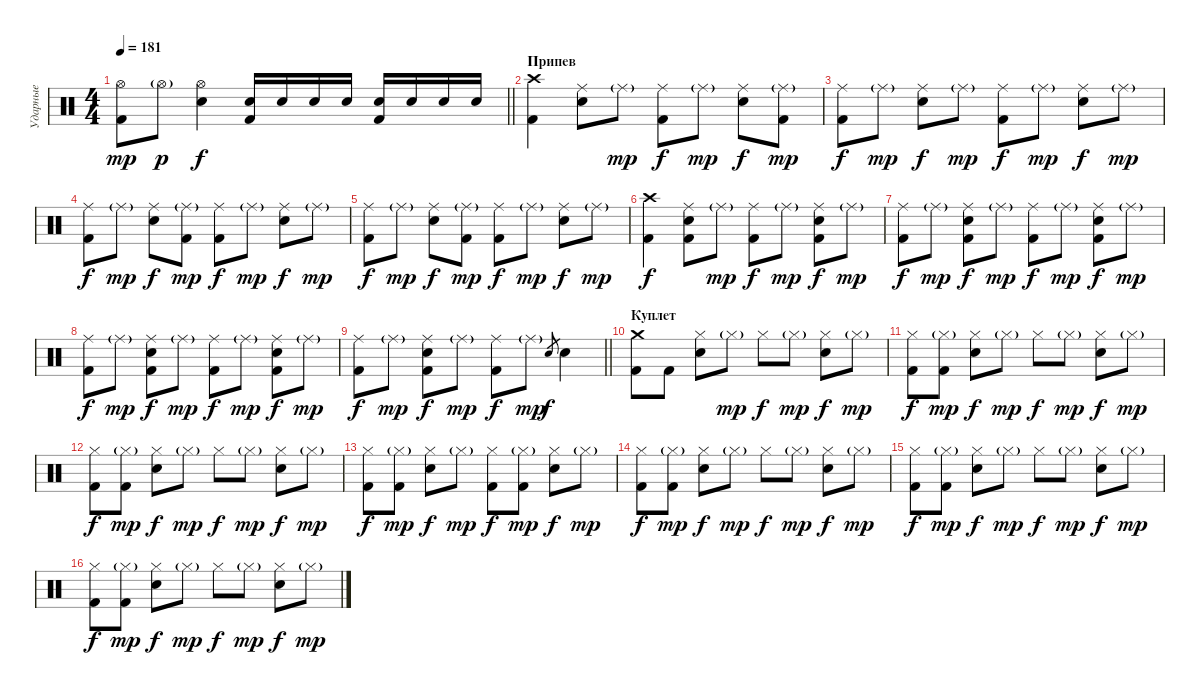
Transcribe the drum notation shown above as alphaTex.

\track ("Ударные" "Ударные") {instrument percussion}
\staff {score}
\articulation defaults
\ts (4 4)
\tempo 181
\clef neutral
\barLineRight lightlight
\ks c
("Hi-Hat (open)" "Kick (hit) 2").8{dy mp} "Hi-Hat (open)"{g}.8{dy p} ("Hi-Hat (open)" "Electric Snare (hit)").4{dy f} ("Electric Snare (hit)" "Kick (hit) 2").16 "Electric Snare (hit)".16 "Electric Snare (hit)".16 "Electric Snare (hit)".16 ("Electric Snare (hit)" "Kick (hit) 2").16 "Electric Snare (hit)".16 "Electric Snare (hit)".16 "Electric Snare (hit)".16 |
\section ("" "Припев")
("Crash high (hit)" "Kick (hit) 2").4 ("Ride (middle)" "Electric Snare (hit)").8 "Ride (middle)"{g}.8{dy mp} ("Ride (middle)" "Kick (hit) 2").8{dy f} "Ride (middle)"{g}.8{dy mp} ("Ride (middle)" "Electric Snare (hit)").8{dy f} ("Ride (middle)"{g} "Kick (hit) 2").8{dy mp} |
("Ride (middle)" "Kick (hit) 2").8{dy f} "Ride (middle)"{g}.8{dy mp} ("Ride (middle)" "Electric Snare (hit)").8{dy f} "Ride (middle)"{g}.8{dy mp} ("Ride (middle)" "Kick (hit) 2").8{dy f} "Ride (middle)"{g}.8{dy mp} ("Ride (middle)" "Electric Snare (hit)").8{dy f} "Ride (middle)"{g}.8{dy mp} |
("Ride (middle)" "Kick (hit) 2").8{dy f} "Ride (middle)"{g}.8{dy mp} ("Ride (middle)" "Electric Snare (hit)").8{dy f} ("Ride (middle)"{g} "Kick (hit) 2").8{dy mp} ("Ride (middle)" "Kick (hit) 2").8{dy f} "Ride (middle)"{g}.8{dy mp} ("Ride (middle)" "Electric Snare (hit)").8{dy f} "Ride (middle)"{g}.8{dy mp} |
("Ride (middle)" "Kick (hit) 2").8{dy f} "Ride (middle)"{g}.8{dy mp} ("Ride (middle)" "Electric Snare (hit)").8{dy f} ("Ride (middle)"{g} "Kick (hit) 2").8{dy mp} ("Ride (middle)" "Kick (hit) 2").8{dy f} "Ride (middle)"{g}.8{dy mp} ("Ride (middle)" "Electric Snare (hit)").8{dy f} "Ride (middle)"{g}.8{dy mp} |
("Crash high (hit)" "Kick (hit) 2").4{dy f} ("Ride (middle)" "Electric Snare (hit)" "Kick (hit) 2").8 "Ride (middle)"{g}.8{dy mp} ("Ride (middle)" "Kick (hit) 2").8{dy f} "Ride (middle)"{g}.8{dy mp} ("Ride (middle)" "Electric Snare (hit)" "Kick (hit) 2").8{dy f} "Ride (middle)"{g}.8{dy mp} |
("Ride (middle)" "Kick (hit) 2").8{dy f} "Ride (middle)"{g}.8{dy mp} ("Ride (middle)" "Electric Snare (hit)" "Kick (hit) 2").8{dy f} "Ride (middle)"{g}.8{dy mp} ("Ride (middle)" "Kick (hit) 2").8{dy f} "Ride (middle)"{g}.8{dy mp} ("Ride (middle)" "Electric Snare (hit)" "Kick (hit) 2").8{dy f} "Ride (middle)"{g}.8{dy mp} |
("Ride (middle)" "Kick (hit) 2").8{dy f} "Ride (middle)"{g}.8{dy mp} ("Ride (middle)" "Electric Snare (hit)" "Kick (hit) 2").8{dy f} "Ride (middle)"{g}.8{dy mp} ("Ride (middle)" "Kick (hit) 2").8{dy f} "Ride (middle)"{g}.8{dy mp} ("Ride (middle)" "Electric Snare (hit)" "Kick (hit) 2").8{dy f} "Ride (middle)"{g}.8{dy mp} |
\barLineRight lightlight
("Ride (middle)" "Kick (hit) 2").8{dy f} "Ride (middle)"{g}.8{dy mp} ("Ride (middle)" "Electric Snare (hit)" "Kick (hit) 2").8{dy f} "Ride (middle)"{g}.8{dy mp} ("Ride (middle)" "Kick (hit) 2").8{dy f} "Ride (middle)"{g}.8{dy mp} "Electric Snare (hit)".8{gr dy f} "Electric Snare (hit)".4 |
\section ("" "Куплет")
("Crash medium (hit)" "Kick (hit) 2").8 "Kick (hit) 2".8 ("Hi-Hat (closed)" "Electric Snare (hit)").8 "Hi-Hat (closed)"{g}.8{dy mp} "Hi-Hat (closed)".8{dy f} "Hi-Hat (closed)"{g}.8{dy mp} ("Hi-Hat (closed)" "Electric Snare (hit)").8{dy f} "Hi-Hat (closed)"{g}.8{dy mp} |
("Hi-Hat (closed)" "Kick (hit) 2").8{dy f} ("Hi-Hat (closed)"{g} "Kick (hit) 2").8{dy mp} ("Hi-Hat (closed)" "Electric Snare (hit)").8{dy f} "Hi-Hat (closed)"{g}.8{dy mp} "Hi-Hat (closed)".8{dy f} "Hi-Hat (closed)"{g}.8{dy mp} ("Hi-Hat (closed)" "Electric Snare (hit)").8{dy f} "Hi-Hat (closed)"{g}.8{dy mp} |
("Hi-Hat (closed)" "Kick (hit) 2").8{dy f} ("Hi-Hat (closed)"{g} "Kick (hit) 2").8{dy mp} ("Hi-Hat (closed)" "Electric Snare (hit)").8{dy f} "Hi-Hat (closed)"{g}.8{dy mp} "Hi-Hat (closed)".8{dy f} "Hi-Hat (closed)"{g}.8{dy mp} ("Hi-Hat (closed)" "Electric Snare (hit)").8{dy f} "Hi-Hat (closed)"{g}.8{dy mp} |
("Hi-Hat (closed)" "Kick (hit) 2").8{dy f} ("Hi-Hat (closed)"{g} "Kick (hit) 2").8{dy mp} ("Hi-Hat (closed)" "Electric Snare (hit)").8{dy f} "Hi-Hat (closed)"{g}.8{dy mp} ("Hi-Hat (closed)" "Kick (hit) 2").8{dy f} ("Hi-Hat (closed)"{g} "Kick (hit) 2").8{dy mp} ("Hi-Hat (closed)" "Electric Snare (hit)").8{dy f} "Hi-Hat (closed)"{g}.8{dy mp} |
("Hi-Hat (closed)" "Kick (hit) 2").8{dy f} ("Hi-Hat (closed)"{g} "Kick (hit) 2").8{dy mp} ("Hi-Hat (closed)" "Electric Snare (hit)").8{dy f} "Hi-Hat (closed)"{g}.8{dy mp} "Hi-Hat (closed)".8{dy f} "Hi-Hat (closed)"{g}.8{dy mp} ("Hi-Hat (closed)" "Electric Snare (hit)").8{dy f} "Hi-Hat (closed)"{g}.8{dy mp} |
("Hi-Hat (closed)" "Kick (hit) 2").8{dy f} ("Hi-Hat (closed)"{g} "Kick (hit) 2").8{dy mp} ("Hi-Hat (closed)" "Electric Snare (hit)").8{dy f} "Hi-Hat (closed)"{g}.8{dy mp} "Hi-Hat (closed)".8{dy f} "Hi-Hat (closed)"{g}.8{dy mp} ("Hi-Hat (closed)" "Electric Snare (hit)").8{dy f} "Hi-Hat (closed)"{g}.8{dy mp} |
("Hi-Hat (closed)" "Kick (hit) 2").8{dy f} ("Hi-Hat (closed)"{g} "Kick (hit) 2").8{dy mp} ("Hi-Hat (closed)" "Electric Snare (hit)").8{dy f} "Hi-Hat (closed)"{g}.8{dy mp} "Hi-Hat (closed)".8{dy f} "Hi-Hat (closed)"{g}.8{dy mp} ("Hi-Hat (closed)" "Electric Snare (hit)").8{dy f} "Hi-Hat (closed)"{g}.8{dy mp}
